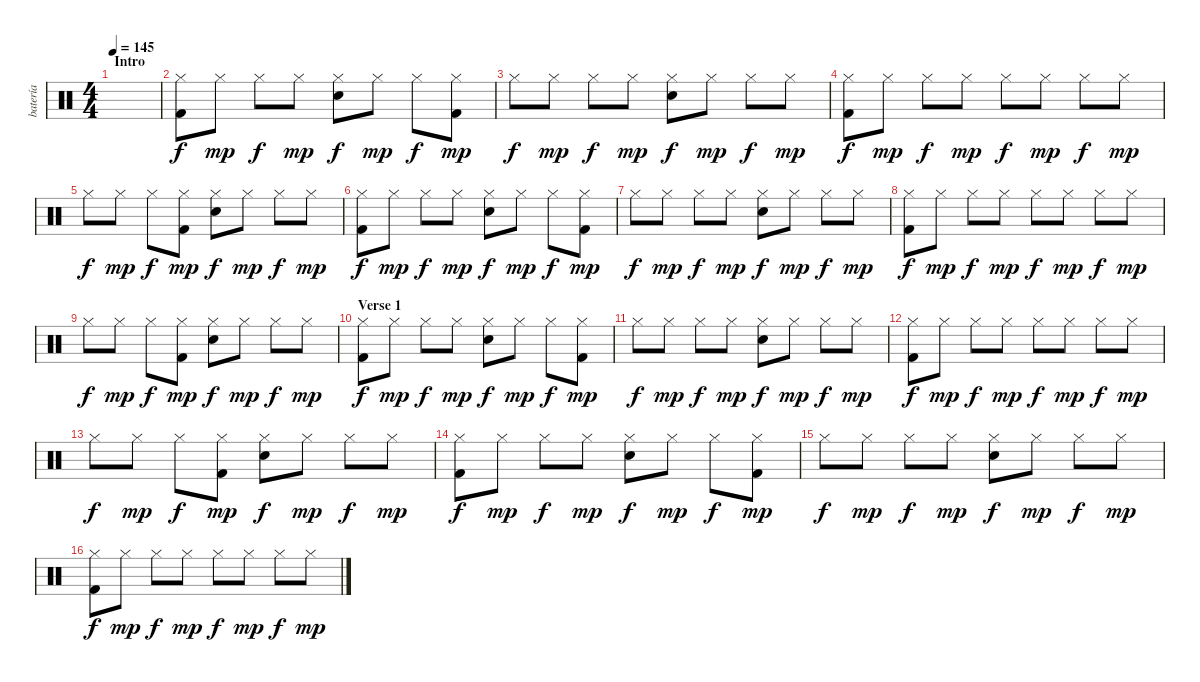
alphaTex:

\track ("batería" "batería") {instrument percussion}
\staff {score}
\articulation defaults
\ts (4 4)
\section ("" "Intro")
\tempo 145
\clef neutral
\ks c
|
("Hi-Hat (closed)" "Kick (hit) 2").8 "Hi-Hat (closed)".8{dy mp} "Hi-Hat (closed)".8{dy f} "Hi-Hat (closed)".8{dy mp} ("Hi-Hat (closed)" "Electric Snare (hit)").8{dy f} "Hi-Hat (closed)".8{dy mp} "Hi-Hat (closed)".8{dy f} ("Hi-Hat (closed)" "Kick (hit) 2").8{dy mp} |
"Hi-Hat (closed)".8{dy f} "Hi-Hat (closed)".8{dy mp} "Hi-Hat (closed)".8{dy f} "Hi-Hat (closed)".8{dy mp} ("Hi-Hat (closed)" "Electric Snare (hit)").8{dy f} "Hi-Hat (closed)".8{dy mp} "Hi-Hat (closed)".8{dy f} "Hi-Hat (closed)".8{dy mp} |
("Hi-Hat (closed)" "Kick (hit) 2").8{dy f} "Hi-Hat (closed)".8{dy mp} "Hi-Hat (closed)".8{dy f} "Hi-Hat (closed)".8{dy mp} "Hi-Hat (closed)".8{dy f} "Hi-Hat (closed)".8{dy mp} "Hi-Hat (closed)".8{dy f} "Hi-Hat (closed)".8{dy mp} |
"Hi-Hat (closed)".8{dy f} "Hi-Hat (closed)".8{dy mp} "Hi-Hat (closed)".8{dy f} ("Hi-Hat (closed)" "Kick (hit) 2").8{dy mp} ("Hi-Hat (closed)" "Electric Snare (hit)").8{dy f} "Hi-Hat (closed)".8{dy mp} "Hi-Hat (closed)".8{dy f} "Hi-Hat (closed)".8{dy mp} |
("Hi-Hat (closed)" "Kick (hit) 2").8{dy f} "Hi-Hat (closed)".8{dy mp} "Hi-Hat (closed)".8{dy f} "Hi-Hat (closed)".8{dy mp} ("Hi-Hat (closed)" "Electric Snare (hit)").8{dy f} "Hi-Hat (closed)".8{dy mp} "Hi-Hat (closed)".8{dy f} ("Hi-Hat (closed)" "Kick (hit) 2").8{dy mp} |
"Hi-Hat (closed)".8{dy f} "Hi-Hat (closed)".8{dy mp} "Hi-Hat (closed)".8{dy f} "Hi-Hat (closed)".8{dy mp} ("Hi-Hat (closed)" "Electric Snare (hit)").8{dy f} "Hi-Hat (closed)".8{dy mp} "Hi-Hat (closed)".8{dy f} "Hi-Hat (closed)".8{dy mp} |
("Hi-Hat (closed)" "Kick (hit) 2").8{dy f} "Hi-Hat (closed)".8{dy mp} "Hi-Hat (closed)".8{dy f} "Hi-Hat (closed)".8{dy mp} "Hi-Hat (closed)".8{dy f} "Hi-Hat (closed)".8{dy mp} "Hi-Hat (closed)".8{dy f} "Hi-Hat (closed)".8{dy mp} |
"Hi-Hat (closed)".8{dy f} "Hi-Hat (closed)".8{dy mp} "Hi-Hat (closed)".8{dy f} ("Hi-Hat (closed)" "Kick (hit) 2").8{dy mp} ("Hi-Hat (closed)" "Electric Snare (hit)").8{dy f} "Hi-Hat (closed)".8{dy mp} "Hi-Hat (closed)".8{dy f} "Hi-Hat (closed)".8{dy mp} |
\section ("" "Verse 1")
("Hi-Hat (closed)" "Kick (hit) 2").8{dy f} "Hi-Hat (closed)".8{dy mp} "Hi-Hat (closed)".8{dy f} "Hi-Hat (closed)".8{dy mp} ("Hi-Hat (closed)" "Electric Snare (hit)").8{dy f} "Hi-Hat (closed)".8{dy mp} "Hi-Hat (closed)".8{dy f} ("Hi-Hat (closed)" "Kick (hit) 2").8{dy mp} |
"Hi-Hat (closed)".8{dy f} "Hi-Hat (closed)".8{dy mp} "Hi-Hat (closed)".8{dy f} "Hi-Hat (closed)".8{dy mp} ("Hi-Hat (closed)" "Electric Snare (hit)").8{dy f} "Hi-Hat (closed)".8{dy mp} "Hi-Hat (closed)".8{dy f} "Hi-Hat (closed)".8{dy mp} |
("Hi-Hat (closed)" "Kick (hit) 2").8{dy f} "Hi-Hat (closed)".8{dy mp} "Hi-Hat (closed)".8{dy f} "Hi-Hat (closed)".8{dy mp} "Hi-Hat (closed)".8{dy f} "Hi-Hat (closed)".8{dy mp} "Hi-Hat (closed)".8{dy f} "Hi-Hat (closed)".8{dy mp} |
"Hi-Hat (closed)".8{dy f} "Hi-Hat (closed)".8{dy mp} "Hi-Hat (closed)".8{dy f} ("Hi-Hat (closed)" "Kick (hit) 2").8{dy mp} ("Hi-Hat (closed)" "Electric Snare (hit)").8{dy f} "Hi-Hat (closed)".8{dy mp} "Hi-Hat (closed)".8{dy f} "Hi-Hat (closed)".8{dy mp} |
("Hi-Hat (closed)" "Kick (hit) 2").8{dy f} "Hi-Hat (closed)".8{dy mp} "Hi-Hat (closed)".8{dy f} "Hi-Hat (closed)".8{dy mp} ("Hi-Hat (closed)" "Electric Snare (hit)").8{dy f} "Hi-Hat (closed)".8{dy mp} "Hi-Hat (closed)".8{dy f} ("Hi-Hat (closed)" "Kick (hit) 2").8{dy mp} |
"Hi-Hat (closed)".8{dy f} "Hi-Hat (closed)".8{dy mp} "Hi-Hat (closed)".8{dy f} "Hi-Hat (closed)".8{dy mp} ("Hi-Hat (closed)" "Electric Snare (hit)").8{dy f} "Hi-Hat (closed)".8{dy mp} "Hi-Hat (closed)".8{dy f} "Hi-Hat (closed)".8{dy mp} |
("Hi-Hat (closed)" "Kick (hit) 2").8{dy f} "Hi-Hat (closed)".8{dy mp} "Hi-Hat (closed)".8{dy f} "Hi-Hat (closed)".8{dy mp} "Hi-Hat (closed)".8{dy f} "Hi-Hat (closed)".8{dy mp} "Hi-Hat (closed)".8{dy f} "Hi-Hat (closed)".8{dy mp}
